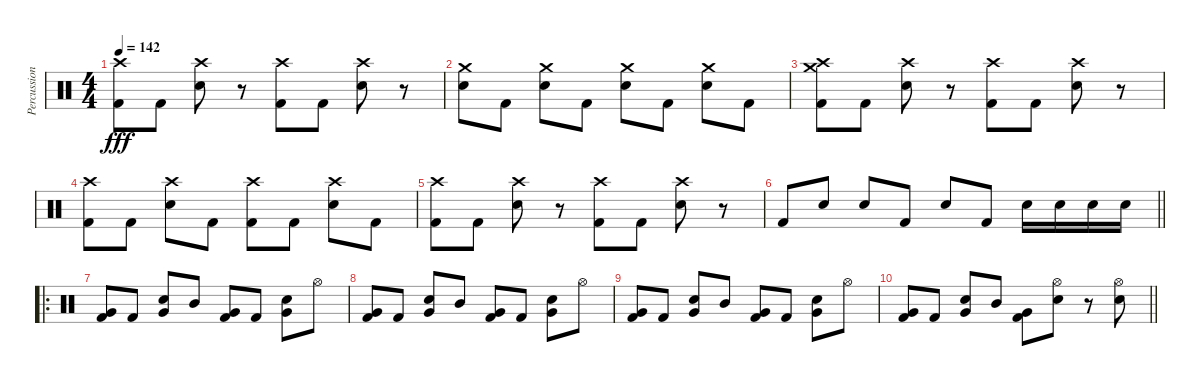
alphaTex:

\track ("Percussion" "Percussion") {instrument percussion}
\staff {score}
\articulation defaults
\ts (4 4)
\tempo 142
\clef neutral
\ks c
("Crash high (hit)" "Kick (hit) 2").8{dy fff} "Kick (hit) 2".8 ("Crash high (hit)" "Electric Snare (hit)").8 r.8 ("Crash high (hit)" "Kick (hit) 2").8 "Kick (hit) 2".8 ("Crash high (hit)" "Electric Snare (hit)").8 r.8 |
("Crash medium (hit)" "Electric Snare (hit)").8 "Kick (hit) 2".8 ("Crash medium (hit)" "Electric Snare (hit)").8 "Kick (hit) 2".8 ("Crash medium (hit)" "Electric Snare (hit)").8 "Kick (hit) 2".8 ("Crash medium (hit)" "Electric Snare (hit)").8 "Kick (hit) 2".8 |
("Crash medium (hit)" "Crash high (hit)" "Kick (hit) 2").8 "Kick (hit) 2".8 ("Crash high (hit)" "Electric Snare (hit)").8 r.8 ("Crash high (hit)" "Kick (hit) 2").8 "Kick (hit) 2".8 ("Crash high (hit)" "Electric Snare (hit)").8 r.8 |
("Crash high (hit)" "Kick (hit) 2").8 "Kick (hit) 2".8 ("Crash high (hit)" "Electric Snare (hit)").8 "Kick (hit) 2".8 ("Crash high (hit)" "Kick (hit) 2").8 "Kick (hit) 2".8 ("Crash high (hit)" "Electric Snare (hit)").8 "Kick (hit) 2".8 |
("Crash high (hit)" "Kick (hit) 2").8 "Kick (hit) 2".8 ("Crash high (hit)" "Electric Snare (hit)").8 r.8 ("Crash high (hit)" "Kick (hit) 2").8 "Kick (hit) 2".8 ("Crash high (hit)" "Electric Snare (hit)").8 r.8 |
\barLineRight lightlight "Kick (hit) 2".8 "Electric Snare (hit)".8 "Electric Snare (hit)".8 "Kick (hit) 2".8 "Electric Snare (hit)".8 "Kick (hit) 2".8 "Electric Snare (hit)".16 "Electric Snare (hit)".16 "Electric Snare (hit)".16 "Electric Snare (hit)".16
|
\ro
("Very Low Tom (hit)" "Kick (hit) 2").8 "Kick (hit) 2".8 ("Very Low Tom (hit)" "Electric Snare (hit)").8 "Mid Tom (hit)".8 ("Very Low Tom (hit)" "Kick (hit) 2").8 "Kick (hit) 2".8 ("Very Low Tom (hit)" "Electric Snare (hit)").8 "Hi-Hat (open)".8 |
("Very Low Tom (hit)" "Kick (hit) 2").8 "Kick (hit) 2".8 ("Very Low Tom (hit)" "Electric Snare (hit)").8 "Mid Tom (hit)".8 ("Very Low Tom (hit)" "Kick (hit) 2").8 "Kick (hit) 2".8 ("Very Low Tom (hit)" "Electric Snare (hit)").8 "Hi-Hat (open)".8 |
("Very Low Tom (hit)" "Kick (hit) 2").8 "Kick (hit) 2".8 ("Very Low Tom (hit)" "Electric Snare (hit)").8 "Mid Tom (hit)".8 ("Very Low Tom (hit)" "Kick (hit) 2").8 "Kick (hit) 2".8 ("Very Low Tom (hit)" "Electric Snare (hit)").8 "Hi-Hat (open)".8 |
\barLineRight lightlight
("Very Low Tom (hit)" "Kick (hit) 2").8 "Kick (hit) 2".8 ("Very Low Tom (hit)" "Electric Snare (hit)").8 "Mid Tom (hit)".8 ("Very Low Tom (hit)" "Kick (hit) 2").8 ("Hi-Hat (open)" "Electric Snare (hit)").8 r.8 ("Hi-Hat (open)" "Electric Snare (hit)").8
